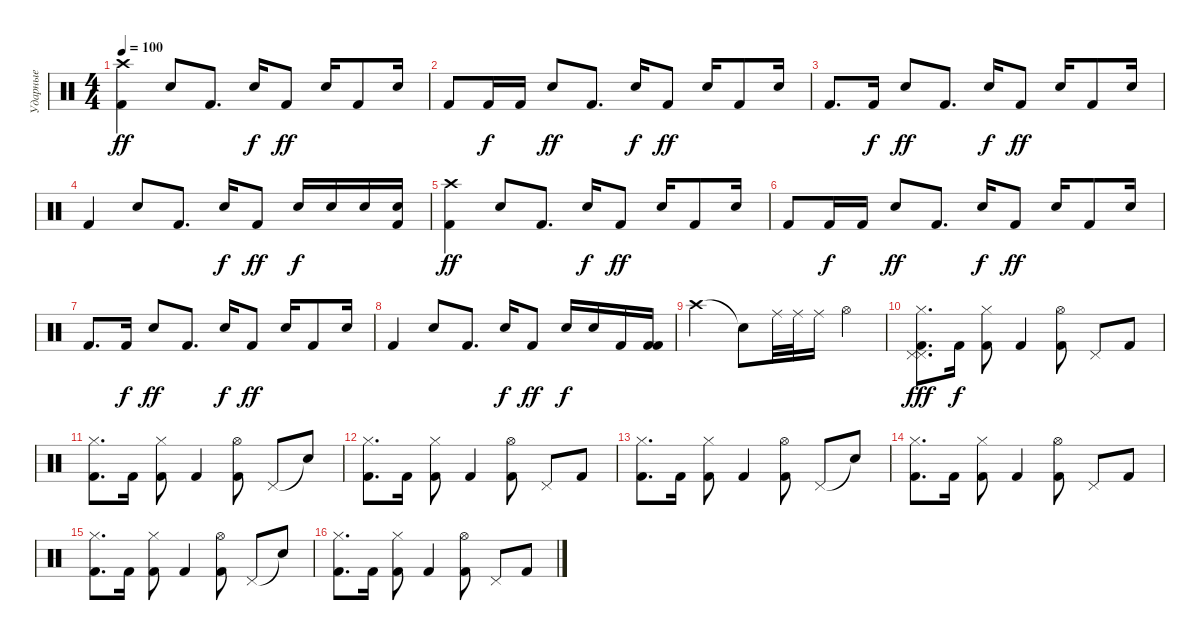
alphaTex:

\track ("Ударные" "Ударные") {instrument percussion}
\staff {score}
\articulation defaults
\ts (4 4)
\tempo 100
\clef neutral
\ks c
("Crash high (hit)" "Kick (hit) 2").4{dy ff} "Snare (hit) 2".8 "Kick (hit) 2".8{d} "Snare (hit) 2".16{dy f} "Kick (hit) 2".8{dy ff} "Snare (hit) 2".16 "Kick (hit) 2".8 "Snare (hit) 2".16 |
"Kick (hit) 2".8 "Kick (hit) 2".16{dy f} "Kick (hit) 2".16 "Snare (hit) 2".8{dy ff} "Kick (hit) 2".8{d} "Snare (hit) 2".16{dy f} "Kick (hit) 2".8{dy ff} "Snare (hit) 2".16 "Kick (hit) 2".8 "Snare (hit) 2".16 |
"Kick (hit) 2".8{d} "Kick (hit) 2".16{dy f} "Snare (hit) 2".8{dy ff} "Kick (hit) 2".8{d} "Snare (hit) 2".16{dy f} "Kick (hit) 2".8{dy ff} "Snare (hit) 2".16 "Kick (hit) 2".8 "Snare (hit) 2".16 |
"Kick (hit) 2".4 "Snare (hit) 2".8 "Kick (hit) 2".8{d} "Snare (hit) 2".16{dy f} "Kick (hit) 2".8{dy ff} "Electric Snare (hit)".16{dy f} "Electric Snare (hit)".16 "Snare (hit) 2".16 ("Snare (hit) 2" "Kick (hit) 2").16 |
("Crash high (hit)" "Kick (hit) 2").4{dy ff} "Snare (hit) 2".8 "Kick (hit) 2".8{d} "Snare (hit) 2".16{dy f} "Kick (hit) 2".8{dy ff} "Snare (hit) 2".16 "Kick (hit) 2".8 "Snare (hit) 2".16 |
"Kick (hit) 2".8 "Kick (hit) 2".16{dy f} "Kick (hit) 2".16 "Snare (hit) 2".8{dy ff} "Kick (hit) 2".8{d} "Snare (hit) 2".16{dy f} "Kick (hit) 2".8{dy ff} "Snare (hit) 2".16 "Kick (hit) 2".8 "Snare (hit) 2".16 |
"Kick (hit) 2".8{d} "Kick (hit) 2".16{dy f} "Snare (hit) 2".8{dy ff} "Kick (hit) 2".8{d} "Snare (hit) 2".16{dy f} "Kick (hit) 2".8{dy ff} "Snare (hit) 2".16 "Kick (hit) 2".8 "Snare (hit) 2".16 |
"Kick (hit) 2".4 "Snare (hit) 2".8 "Kick (hit) 2".8{d} "Snare (hit) 2".16{dy f} "Kick (hit) 2".8{dy ff} "Electric Snare (hit)".16{dy f} "Electric Snare (hit)".16 "Kick (hit) 2".16 ("Kick (hit) 2" "Kick (hit) 2").16 |
"Crash high (hit)".2 "Snare (hit)"{t}.8 "Ride (middle)".32 "Ride (middle)".32 "Ride (middle)".16 "Hi-Hat (open)".4 |
("Pedal Hi-Hat (hit)" "Pedal Hi-Hat (hit)" "Kick (hit) 2" "Hi-Hat (closed)").8{d dy fff} "Kick (hit) 2".16{dy f} ("Kick (hit) 2" "Hi-Hat (closed)").8 "Kick (hit) 2".4 ("Kick (hit) 2" "Hi-Hat (open)").8 "Pedal Hi-Hat (hit)".8 "Kick (hit) 2".8 |
("Kick (hit) 2" "Hi-Hat (closed)").8{d} "Kick (hit) 2".16 ("Kick (hit) 2" "Hi-Hat (closed)").8 "Kick (hit) 2".4 ("Kick (hit) 2" "Hi-Hat (open)").8 "Pedal Hi-Hat (hit)".8 "Snare (hit)"{t}.8 |
("Kick (hit) 2" "Hi-Hat (closed)").8{d} "Kick (hit) 2".16 ("Kick (hit) 2" "Hi-Hat (closed)").8 "Kick (hit) 2".4 ("Kick (hit) 2" "Hi-Hat (open)").8 "Pedal Hi-Hat (hit)".8 "Kick (hit) 2".8 |
("Kick (hit) 2" "Hi-Hat (closed)").8{d} "Kick (hit) 2".16 ("Kick (hit) 2" "Hi-Hat (closed)").8 "Kick (hit) 2".4 ("Kick (hit) 2" "Hi-Hat (open)").8 "Pedal Hi-Hat (hit)".8 "Snare (hit)"{t}.8 |
("Kick (hit) 2" "Hi-Hat (closed)").8{d} "Kick (hit) 2".16 ("Kick (hit) 2" "Hi-Hat (closed)").8 "Kick (hit) 2".4 ("Kick (hit) 2" "Hi-Hat (open)").8 "Pedal Hi-Hat (hit)".8 "Kick (hit) 2".8 |
("Kick (hit) 2" "Hi-Hat (closed)").8{d} "Kick (hit) 2".16 ("Kick (hit) 2" "Hi-Hat (closed)").8 "Kick (hit) 2".4 ("Kick (hit) 2" "Hi-Hat (open)").8 "Pedal Hi-Hat (hit)".8 "Snare (hit)"{t}.8 |
("Kick (hit) 2" "Hi-Hat (closed)").8{d} "Kick (hit) 2".16 ("Kick (hit) 2" "Hi-Hat (closed)").8 "Kick (hit) 2".4 ("Kick (hit) 2" "Hi-Hat (open)").8 "Pedal Hi-Hat (hit)".8 "Kick (hit) 2".8
